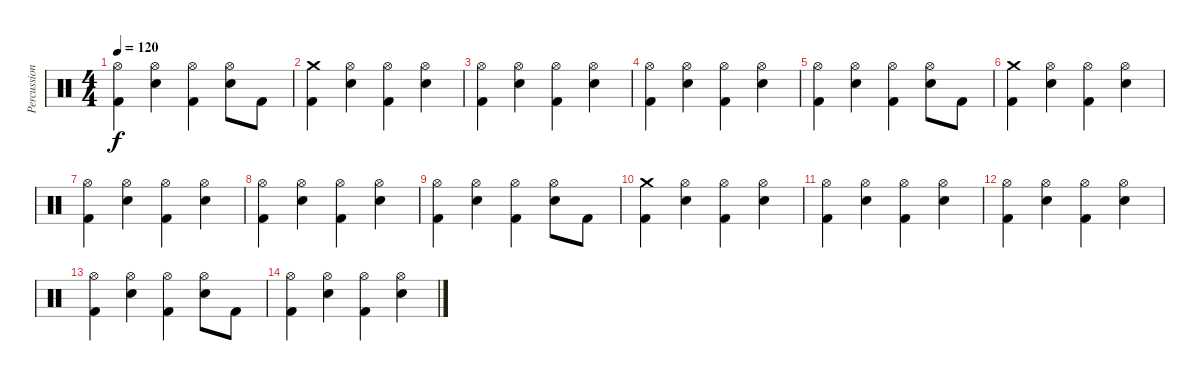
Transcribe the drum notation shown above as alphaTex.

\track ("Percussion" "Percussion") {instrument percussion}
\staff {score}
\articulation defaults
\ts (4 4)
\tempo 120
\clef neutral
\ks c
("Hi-Hat (open)" "Kick (hit) 2").4{dy f} ("Hi-Hat (open)" "Electric Snare (hit)").4 ("Hi-Hat (open)" "Kick (hit) 2").4 ("Hi-Hat (open)" "Electric Snare (hit)").8 "Kick (hit) 2".8 |
("Crash medium (hit)" "Kick (hit) 2").4 ("Hi-Hat (open)" "Electric Snare (hit)").4 ("Hi-Hat (open)" "Kick (hit) 2").4 ("Hi-Hat (open)" "Electric Snare (hit)").4 |
("Hi-Hat (open)" "Kick (hit) 2").4 ("Hi-Hat (open)" "Electric Snare (hit)").4 ("Hi-Hat (open)" "Kick (hit) 2").4 ("Hi-Hat (open)" "Electric Snare (hit)").4 |
("Hi-Hat (open)" "Kick (hit) 2").4 ("Hi-Hat (open)" "Electric Snare (hit)").4 ("Hi-Hat (open)" "Kick (hit) 2").4 ("Hi-Hat (open)" "Electric Snare (hit)").4 |
("Hi-Hat (open)" "Kick (hit) 2").4 ("Hi-Hat (open)" "Electric Snare (hit)").4 ("Hi-Hat (open)" "Kick (hit) 2").4 ("Hi-Hat (open)" "Electric Snare (hit)").8 "Kick (hit) 2".8 |
("Crash medium (hit)" "Kick (hit) 2").4 ("Hi-Hat (open)" "Electric Snare (hit)").4 ("Hi-Hat (open)" "Kick (hit) 2").4 ("Hi-Hat (open)" "Electric Snare (hit)").4 |
("Hi-Hat (open)" "Kick (hit) 2").4 ("Hi-Hat (open)" "Electric Snare (hit)").4 ("Hi-Hat (open)" "Kick (hit) 2").4 ("Hi-Hat (open)" "Electric Snare (hit)").4 |
("Hi-Hat (open)" "Kick (hit) 2").4 ("Hi-Hat (open)" "Electric Snare (hit)").4 ("Hi-Hat (open)" "Kick (hit) 2").4 ("Hi-Hat (open)" "Electric Snare (hit)").4 |
("Hi-Hat (open)" "Kick (hit) 2").4 ("Hi-Hat (open)" "Electric Snare (hit)").4 ("Hi-Hat (open)" "Kick (hit) 2").4 ("Hi-Hat (open)" "Electric Snare (hit)").8 "Kick (hit) 2".8 |
("Crash medium (hit)" "Kick (hit) 2").4 ("Hi-Hat (open)" "Electric Snare (hit)").4 ("Hi-Hat (open)" "Kick (hit) 2").4 ("Hi-Hat (open)" "Electric Snare (hit)").4 |
("Hi-Hat (open)" "Kick (hit) 2").4 ("Hi-Hat (open)" "Electric Snare (hit)").4 ("Hi-Hat (open)" "Kick (hit) 2").4 ("Hi-Hat (open)" "Electric Snare (hit)").4 |
("Hi-Hat (open)" "Kick (hit) 2").4 ("Hi-Hat (open)" "Electric Snare (hit)").4 ("Hi-Hat (open)" "Kick (hit) 2").4 ("Hi-Hat (open)" "Electric Snare (hit)").4 |
("Hi-Hat (open)" "Kick (hit) 2").4 ("Hi-Hat (open)" "Electric Snare (hit)").4 ("Hi-Hat (open)" "Kick (hit) 2").4 ("Hi-Hat (open)" "Electric Snare (hit)").8 "Kick (hit) 2".8 |
("Hi-Hat (open)" "Kick (hit) 2").4 ("Hi-Hat (open)" "Electric Snare (hit)").4 ("Hi-Hat (open)" "Kick (hit) 2").4 ("Hi-Hat (open)" "Electric Snare (hit)").4
